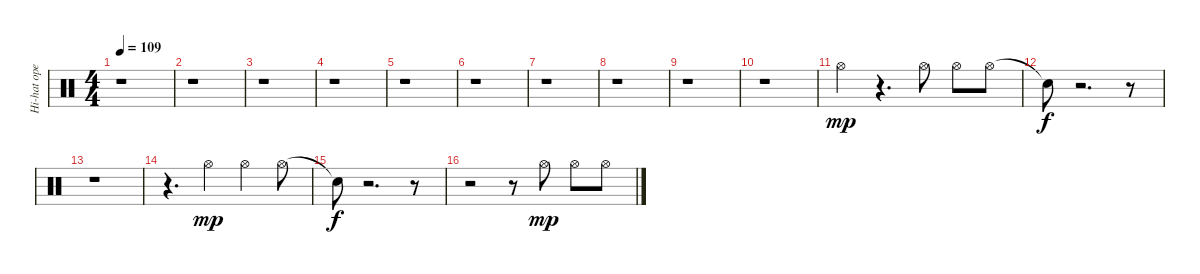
\track ("Hi-hat open" "Hi-hat ope") {instrument percussion}
\staff {score}
\articulation defaults
\ts (4 4)
\tempo 109
\clef neutral
\ks c
r.1{dy mp} |
r.1 |
r.1 |
r.1 |
r.1 |
r.1 |
r.1 |
r.1 |
r.1 |
r.1 |
"Hi-Hat (open)".4 r.4{d} "Hi-Hat (open)".8 "Hi-Hat (open)".8 "Hi-Hat (open)".8 |
"Snare (hit)"{t}.8{dy f} r.2{d} r.8 |
r.1 |
r.4{d} "Hi-Hat (open)".4{dy mp} "Hi-Hat (open)".4 "Hi-Hat (open)".8 |
"Snare (hit)"{t}.8{dy f} r.2{d} r.8 |
r.2 r.8 "Hi-Hat (open)".8{dy mp} "Hi-Hat (open)".8 "Hi-Hat (open)".8
